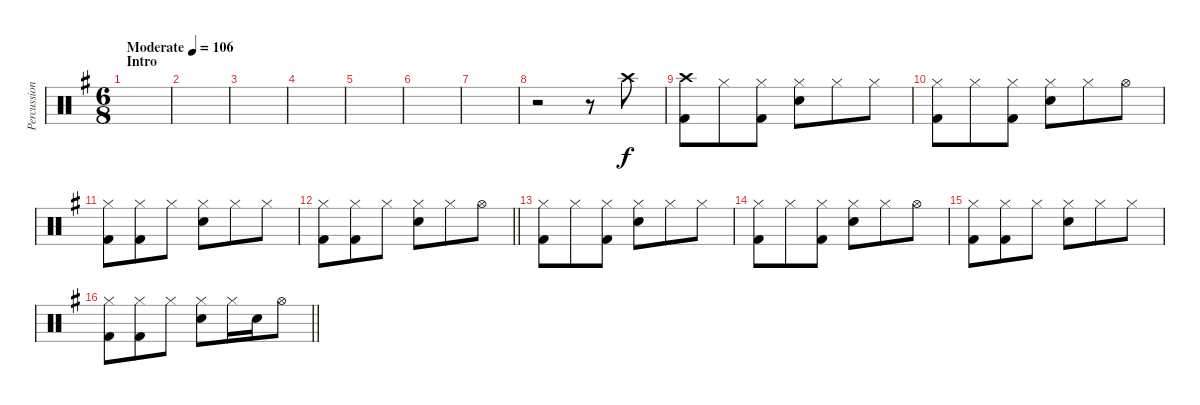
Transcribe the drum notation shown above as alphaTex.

\track ("Percussion" "Percussion") {instrument percussion}
\staff {score}
\articulation defaults
\ts (6 8)
\section ("" "Intro")
\tempo (106 "Moderate")
\clef neutral
\ks g
|
|
|
|
|
|
|
r.2 r.8 "Crash high (hit)".8 |
("Crash high (hit)" "Kick (hit) 2").8 "Hi-Hat (closed)".8 ("Hi-Hat (closed)" "Kick (hit) 2").8 ("Hi-Hat (closed)" "Snare (hit) 2").8 "Hi-Hat (closed)".8 "Hi-Hat (closed)".8 |
("Hi-Hat (closed)" "Kick (hit) 2").8 "Hi-Hat (closed)".8 ("Hi-Hat (closed)" "Kick (hit) 2").8 ("Hi-Hat (closed)" "Snare (hit) 2").8 "Hi-Hat (closed)".8 "Hi-Hat (open)".8 |
("Hi-Hat (closed)" "Kick (hit) 2").8 ("Hi-Hat (closed)" "Kick (hit) 2").8 "Hi-Hat (closed)".8 ("Hi-Hat (closed)" "Snare (hit) 2").8 "Hi-Hat (closed)".8 "Hi-Hat (closed)".8 |
\barLineRight lightlight
("Hi-Hat (closed)" "Kick (hit) 2").8 ("Hi-Hat (closed)" "Kick (hit) 2").8 "Hi-Hat (closed)".8 ("Hi-Hat (closed)" "Snare (hit) 2").8 "Hi-Hat (closed)".8 "Hi-Hat (open)".8 |
("Hi-Hat (closed)" "Kick (hit) 2").8 "Hi-Hat (closed)".8 ("Hi-Hat (closed)" "Kick (hit) 2").8 ("Hi-Hat (closed)" "Snare (hit) 2").8 "Hi-Hat (closed)".8 "Hi-Hat (closed)".8 |
("Hi-Hat (closed)" "Kick (hit) 2").8 "Hi-Hat (closed)".8 ("Hi-Hat (closed)" "Kick (hit) 2").8 ("Hi-Hat (closed)" "Snare (hit) 2").8 "Hi-Hat (closed)".8 "Hi-Hat (open)".8 |
("Hi-Hat (closed)" "Kick (hit) 2").8 ("Hi-Hat (closed)" "Kick (hit) 2").8 "Hi-Hat (closed)".8 ("Hi-Hat (closed)" "Snare (hit) 2").8 "Hi-Hat (closed)".8 "Hi-Hat (closed)".8 |
\barLineRight lightlight
("Hi-Hat (closed)" "Kick (hit) 2").8 ("Hi-Hat (closed)" "Kick (hit) 2").8 "Hi-Hat (closed)".8 ("Hi-Hat (closed)" "Snare (hit) 2").8 "Hi-Hat (closed)".16 "Snare (hit) 2".16 "Hi-Hat (open)".8
